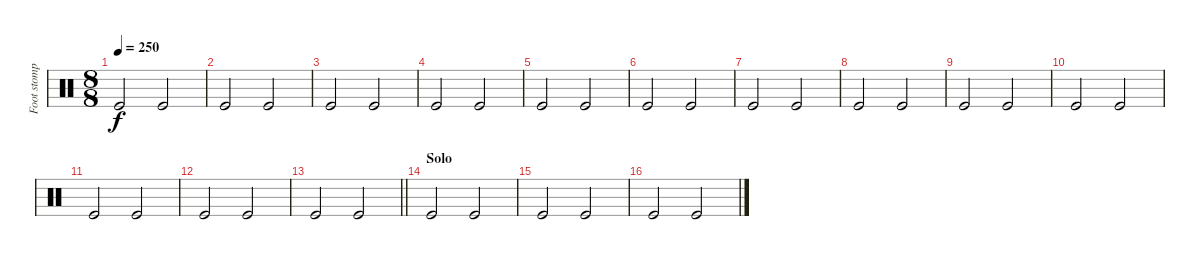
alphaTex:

\track ("Foot stomp!" "Foot stomp") {instrument percussion}
\staff {score}
\articulation defaults
\ts (8 8)
\tempo 250
\clef neutral
\ks c "Kick (hit)".2{dy f} "Kick (hit)".2
|
"Kick (hit)".2 "Kick (hit)".2 |
"Kick (hit)".2 "Kick (hit)".2 |
"Kick (hit)".2 "Kick (hit)".2 |
"Kick (hit)".2 "Kick (hit)".2 |
"Kick (hit)".2 "Kick (hit)".2 |
"Kick (hit)".2 "Kick (hit)".2 |
"Kick (hit)".2 "Kick (hit)".2 |
"Kick (hit)".2 "Kick (hit)".2 |
"Kick (hit)".2 "Kick (hit)".2 |
"Kick (hit)".2 "Kick (hit)".2 |
"Kick (hit)".2 "Kick (hit)".2 |
\barLineRight lightlight "Kick (hit)".2 "Kick (hit)".2
|
\section ("" "Solo")
"Kick (hit)".2 "Kick (hit)".2 |
"Kick (hit)".2 "Kick (hit)".2 |
"Kick (hit)".2 "Kick (hit)".2
